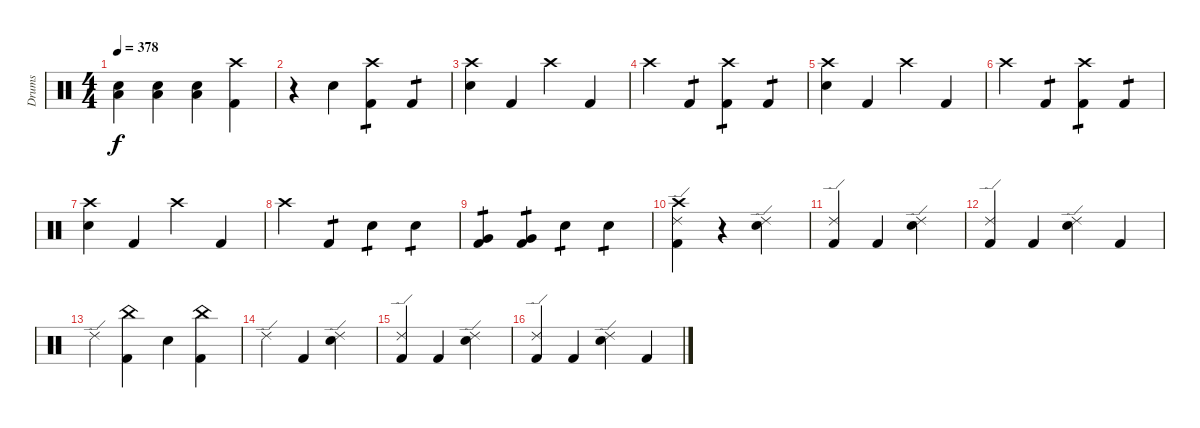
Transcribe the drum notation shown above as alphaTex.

\track ("Drums" "Drums") {instrument percussion}
\staff {score}
\articulation defaults
\ts (4 4)
\tempo 378
\clef neutral
\ks c
("Low Floor Tom (hit)" "Electric Snare (hit)").4{dy f} ("Low Floor Tom (hit)" "Electric Snare (hit)").4 ("Low Floor Tom (hit)" "Electric Snare (hit)").4 ("Crash high (hit)" "Kick (hit) 2").4 |
r.4 "Electric Snare (hit)".4 ("Crash high (hit)" "Kick (hit) 2").4{tp 1} "Kick (hit) 2".4{tp 1} |
("Crash high (hit)" "Electric Snare (hit)").4 "Kick (hit) 2".4 "Crash high (hit)".4 "Kick (hit) 2".4 |
"Crash high (hit)".4 "Kick (hit) 2".4{tp 1} ("Crash high (hit)" "Kick (hit) 2").4{tp 1} "Kick (hit) 2".4{tp 1} |
("Crash high (hit)" "Electric Snare (hit)").4 "Kick (hit) 2".4 "Crash high (hit)".4 "Kick (hit) 2".4 |
"Crash high (hit)".4 "Kick (hit) 2".4{tp 1} ("Crash high (hit)" "Kick (hit) 2").4{tp 1} "Kick (hit) 2".4{tp 1} |
("Crash high (hit)" "Electric Snare (hit)").4 "Kick (hit) 2".4 "Crash high (hit)".4 "Kick (hit) 2".4 |
"Crash high (hit)".4 "Kick (hit) 2".4{tp 1} "Electric Snare (hit)".4{tp 1} "Electric Snare (hit)".4{tp 1} |
("Very Low Tom (hit)" "Kick (hit) 2").4{tp 1} ("Very Low Tom (hit)" "Kick (hit) 2").4{tp 1} "Electric Snare (hit)".4{tp 1} "Electric Snare (hit)".4{tp 1} |
("Crash high (hit)" "Ride (edge) 2" "Kick (hit) 2").4 r.4 ("Ride (edge) 2" "Electric Snare (hit)").4 |
("Ride (edge) 2" "Kick (hit) 2").4 "Kick (hit) 2".4 ("Ride (edge) 2" "Electric Snare (hit)").4 |
("Ride (edge) 2" "Kick (hit) 2").4 "Kick (hit) 2".4 ("Ride (edge) 2" "Electric Snare (hit)").4 "Kick (hit) 2".4 |
"Ride (edge) 2".4 ("China (hit)" "Kick (hit) 2").4 "Electric Snare (hit)".4 ("China (hit)" "Kick (hit) 2").4 |
"Ride (edge) 2".4 "Kick (hit) 2".4 ("Ride (edge) 2" "Electric Snare (hit)").4 |
("Ride (edge) 2" "Kick (hit) 2").4 "Kick (hit) 2".4 ("Ride (edge) 2" "Electric Snare (hit)").4 |
("Ride (edge) 2" "Kick (hit) 2").4 "Kick (hit) 2".4 ("Ride (edge) 2" "Electric Snare (hit)").4 "Kick (hit) 2".4
